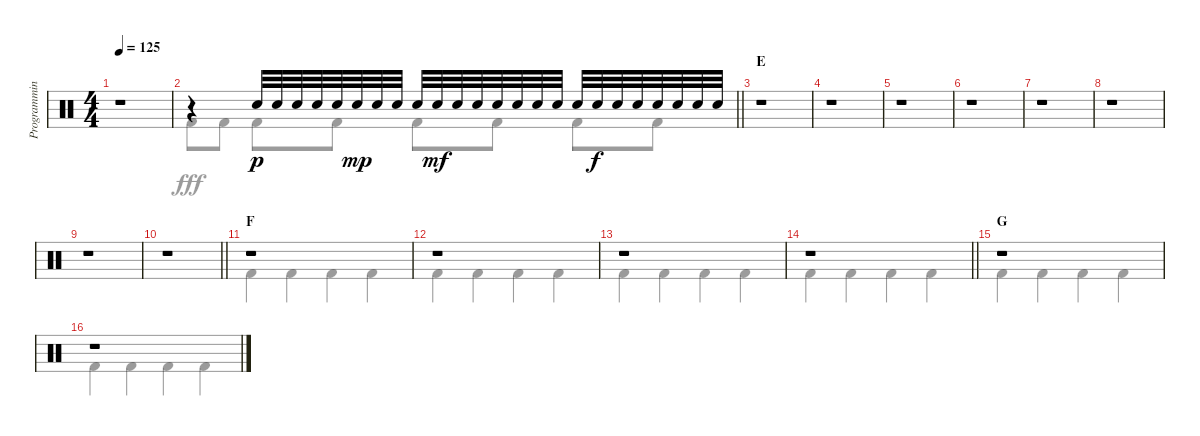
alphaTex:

\track ("Programming" "Programmin") {instrument percussion}
\staff {score}
\articulation defaults
\voice
\ts (4 4)
\tempo 125
\clef neutral
\ks c
r.1{dy f} |
\barLineRight lightlight
r.4 "Electric Snare (hit)".32{dy p} "Electric Snare (hit)".32 "Electric Snare (hit)".32 "Electric Snare (hit)".32 "Electric Snare (hit)".32 "Electric Snare (hit)".32{dy mp} "Electric Snare (hit)".32 "Electric Snare (hit)".32 "Electric Snare (hit)".32 "Electric Snare (hit)".32{dy mf} "Electric Snare (hit)".32 "Electric Snare (hit)".32 "Electric Snare (hit)".32 "Electric Snare (hit)".32 "Electric Snare (hit)".32 "Electric Snare (hit)".32 "Electric Snare (hit)".32 "Electric Snare (hit)".32{dy f} "Electric Snare (hit)".32 "Electric Snare (hit)".32 "Electric Snare (hit)".32 "Electric Snare (hit)".32 "Electric Snare (hit)".32 "Electric Snare (hit)".32 |
\section ("" "E")
r.1 |
r.1 |
r.1 |
r.1 |
r.1 |
r.1 |
r.1 |
\barLineRight lightlight
r.1 |
\section ("" "F")
r.1 |
r.1 |
r.1 |
\barLineRight lightlight
r.1 |
\section ("" "G")
r.1 |
r.1
\voice
\clef neutral
\ottava regular
\simile none
\ks c
r.1{dy fff} |
\barLineRight lightlight "Kick (hit) 2".8 "Kick (hit) 2".8 "Kick (hit) 2".8 "Kick (hit) 2".8 "Kick (hit) 2".8 "Kick (hit) 2".8 "Kick (hit) 2".8 "Kick (hit) 2".8
|
r.1 |
r.1 |
r.1 |
r.1 |
r.1 |
r.1 |
r.1 |
\barLineRight lightlight
r.1 |
"Kick (hit) 2".4 "Kick (hit) 2".4 "Kick (hit) 2".4 "Kick (hit) 2".4 |
"Kick (hit) 2".4 "Kick (hit) 2".4 "Kick (hit) 2".4 "Kick (hit) 2".4 |
"Kick (hit) 2".4 "Kick (hit) 2".4 "Kick (hit) 2".4 "Kick (hit) 2".4 |
\barLineRight lightlight "Kick (hit) 2".4 "Kick (hit) 2".4 "Kick (hit) 2".4 "Kick (hit) 2".4
|
"Kick (hit) 2".4 "Kick (hit) 2".4 "Kick (hit) 2".4 "Kick (hit) 2".4 |
"Kick (hit) 2".4 "Kick (hit) 2".4 "Kick (hit) 2".4 "Kick (hit) 2".4
